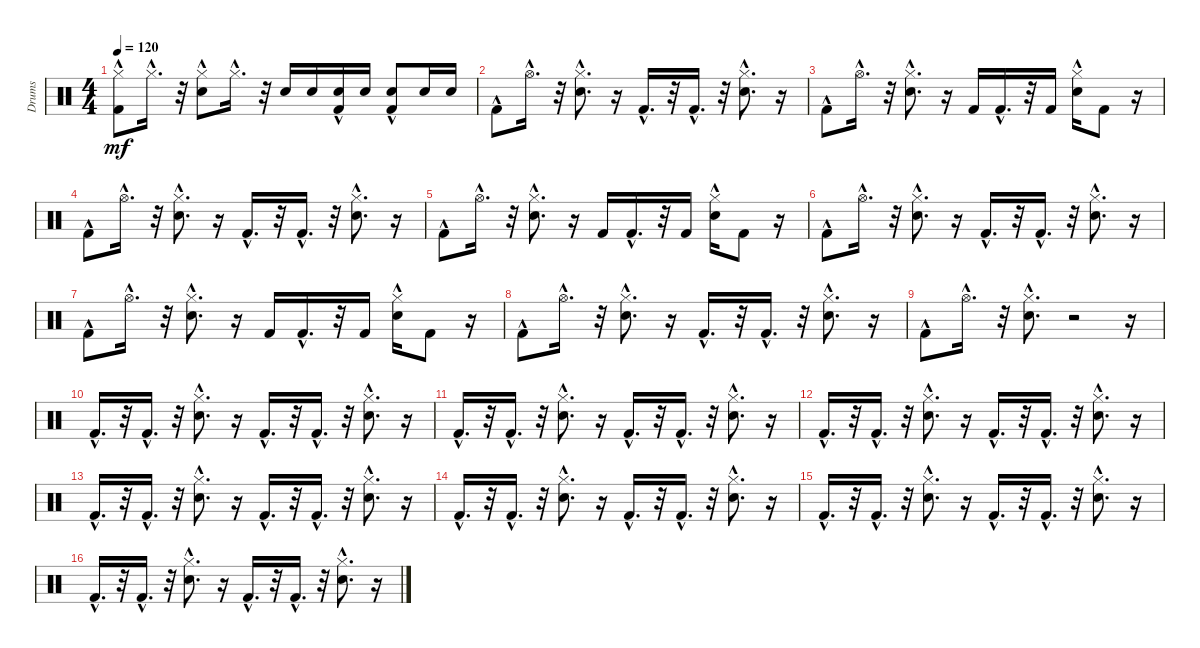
\track ("Drums" "Drums") {instrument percussion}
\staff {score}
\articulation defaults
\ts (4 4)
\tempo 120
\clef neutral
\ks c
("Kick (hit) 2"{hac} "Hi-Hat (closed)"{hac}).8{dy mf} "Hi-Hat (closed)"{hac}.16{d} r.32 ("Hi-Hat (closed)"{hac} "Snare (hit) 2"{hac}).8 "Hi-Hat (closed)"{hac}.16{d} r.32 "Snare (hit) 2".16 "Snare (hit) 2".16 ("Snare (hit) 2" "Kick (hit) 2"{hac}).16 "Snare (hit) 2".16 ("Snare (hit) 2"{hac} "Kick (hit) 2"{hac}).8 "Snare (hit) 2".16 "Snare (hit) 2".16 |
"Kick (hit) 2"{hac}.8 "Hi-Hat (open)"{hac}.16{d} r.32 ("Hi-Hat (closed)"{hac} "Snare (hit) 2"{hac}).8{d} r.16 "Kick (hit) 2"{hac}.16{d} r.32 "Kick (hit) 2"{hac}.16{d} r.32 ("Snare (hit) 2"{hac} "Hi-Hat (closed)"{hac}).8{d} r.16 |
"Kick (hit) 2"{hac}.8 "Hi-Hat (open)"{hac}.16{d} r.32 ("Snare (hit) 2"{hac} "Hi-Hat (closed)"{hac}).8{d} r.16 "Kick (hit) 2".16 "Kick (hit) 2"{hac}.16{d} r.32 "Kick (hit) 2".16 ("Hi-Hat (closed)"{hac} "Snare (hit) 2"{hac}).16 "Kick (hit) 2".8 r.16 |
"Kick (hit) 2"{hac}.8 "Hi-Hat (open)"{hac}.16{d} r.32 ("Hi-Hat (closed)"{hac} "Snare (hit) 2"{hac}).8{d} r.16 "Kick (hit) 2"{hac}.16{d} r.32 "Kick (hit) 2"{hac}.16{d} r.32 ("Snare (hit) 2"{hac} "Hi-Hat (closed)"{hac}).8{d} r.16 |
"Kick (hit) 2"{hac}.8 "Hi-Hat (open)"{hac}.16{d} r.32 ("Hi-Hat (closed)"{hac} "Snare (hit) 2"{hac}).8{d} r.16 "Kick (hit) 2".16 "Kick (hit) 2"{hac}.16{d} r.32 "Kick (hit) 2".16 ("Hi-Hat (closed)"{hac} "Snare (hit) 2"{hac}).16 "Kick (hit) 2".8 r.16 |
"Kick (hit) 2"{hac}.8 "Hi-Hat (open)"{hac}.16{d} r.32 ("Hi-Hat (closed)"{hac} "Snare (hit) 2"{hac}).8{d} r.16 "Kick (hit) 2"{hac}.16{d} r.32 "Kick (hit) 2"{hac}.16{d} r.32 ("Hi-Hat (closed)"{hac} "Snare (hit) 2"{hac}).8{d} r.16 |
"Kick (hit) 2"{hac}.8 "Hi-Hat (open)"{hac}.16{d} r.32 ("Hi-Hat (closed)"{hac} "Snare (hit) 2"{hac}).8{d} r.16 "Kick (hit) 2".16 "Kick (hit) 2"{hac}.16{d} r.32 "Kick (hit) 2".16 ("Hi-Hat (closed)"{hac} "Snare (hit) 2"{hac}).16 "Kick (hit) 2".8 r.16 |
"Kick (hit) 2"{hac}.8 "Hi-Hat (open)"{hac}.16{d} r.32 ("Snare (hit) 2"{hac} "Hi-Hat (closed)"{hac}).8{d} r.16 "Kick (hit) 2"{hac}.16{d} r.32 "Kick (hit) 2"{hac}.16{d} r.32 ("Hi-Hat (closed)"{hac} "Snare (hit) 2"{hac}).8{d} r.16 |
"Kick (hit) 2"{hac}.8 "Hi-Hat (open)"{hac}.16{d} r.32 ("Hi-Hat (closed)"{hac} "Snare (hit) 2"{hac}).8{d} r.2 r.16 |
"Kick (hit) 2"{hac}.16{d} r.32 "Kick (hit) 2"{hac}.16{d} r.32 ("Snare (hit) 2"{hac} "Hi-Hat (closed)"{hac}).8{d} r.16 "Kick (hit) 2"{hac}.16{d} r.32 "Kick (hit) 2"{hac}.16{d} r.32 ("Snare (hit) 2"{hac} "Hi-Hat (closed)"{hac}).8{d} r.16 |
"Kick (hit) 2"{hac}.16{d} r.32 "Kick (hit) 2"{hac}.16{d} r.32 ("Snare (hit) 2"{hac} "Hi-Hat (closed)"{hac}).8{d} r.16 "Kick (hit) 2"{hac}.16{d} r.32 "Kick (hit) 2"{hac}.16{d} r.32 ("Snare (hit) 2"{hac} "Hi-Hat (closed)"{hac}).8{d} r.16 |
"Kick (hit) 2"{hac}.16{d} r.32 "Kick (hit) 2"{hac}.16{d} r.32 ("Snare (hit) 2"{hac} "Hi-Hat (closed)"{hac}).8{d} r.16 "Kick (hit) 2"{hac}.16{d} r.32 "Kick (hit) 2"{hac}.16{d} r.32 ("Hi-Hat (closed)"{hac} "Snare (hit) 2"{hac}).8{d} r.16 |
"Kick (hit) 2"{hac}.16{d} r.32 "Kick (hit) 2"{hac}.16{d} r.32 ("Hi-Hat (closed)"{hac} "Snare (hit) 2"{hac}).8{d} r.16 "Kick (hit) 2"{hac}.16{d} r.32 "Kick (hit) 2"{hac}.16{d} r.32 ("Snare (hit) 2"{hac} "Hi-Hat (closed)"{hac}).8{d} r.16 |
"Kick (hit) 2"{hac}.16{d} r.32 "Kick (hit) 2"{hac}.16{d} r.32 ("Snare (hit) 2"{hac} "Hi-Hat (closed)"{hac}).8{d} r.16 "Kick (hit) 2"{hac}.16{d} r.32 "Kick (hit) 2"{hac}.16{d} r.32 ("Snare (hit) 2"{hac} "Hi-Hat (closed)"{hac}).8{d} r.16 |
"Kick (hit) 2"{hac}.16{d} r.32 "Kick (hit) 2"{hac}.16{d} r.32 ("Snare (hit) 2"{hac} "Hi-Hat (closed)"{hac}).8{d} r.16 "Kick (hit) 2"{hac}.16{d} r.32 "Kick (hit) 2"{hac}.16{d} r.32 ("Snare (hit) 2"{hac} "Hi-Hat (closed)"{hac}).8{d} r.16 |
"Kick (hit) 2"{hac}.16{d} r.32 "Kick (hit) 2"{hac}.16{d} r.32 ("Snare (hit) 2"{hac} "Hi-Hat (closed)"{hac}).8{d} r.16 "Kick (hit) 2"{hac}.16{d} r.32 "Kick (hit) 2"{hac}.16{d} r.32 ("Hi-Hat (closed)"{hac} "Snare (hit) 2"{hac}).8{d} r.16
